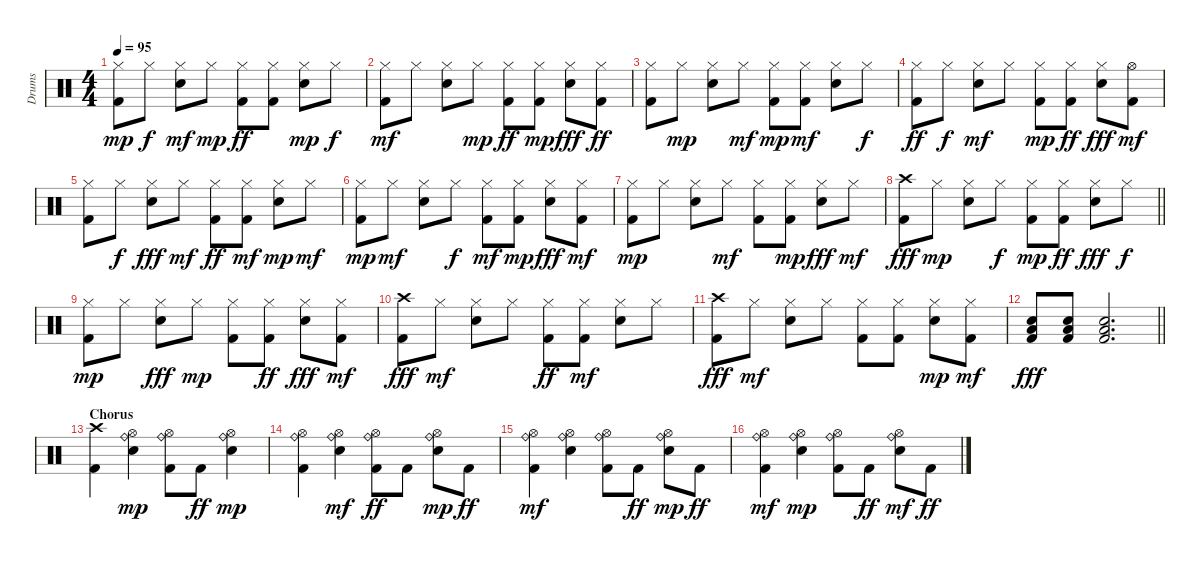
\track ("Drums" "Drums") {instrument percussion}
\staff {score}
\articulation defaults
\ts (4 4)
\tempo 95
\clef neutral
\ks c
("Kick (hit) 2" "Hi-Hat (closed)").8{dy mp} "Hi-Hat (closed)".8{dy f} ("Electric Snare (hit)" "Hi-Hat (closed)").8{dy mf} "Hi-Hat (closed)".8{dy mp} ("Kick (hit) 2" "Hi-Hat (closed)").8{dy ff} ("Kick (hit) 2" "Hi-Hat (closed)").8 ("Electric Snare (hit)" "Hi-Hat (closed)").8{dy mp} "Hi-Hat (closed)".8{dy f} |
("Kick (hit) 2" "Hi-Hat (closed)").8{dy mf} "Hi-Hat (closed)".8 ("Electric Snare (hit)" "Hi-Hat (closed)").8 "Hi-Hat (closed)".8{dy mp} ("Kick (hit) 2" "Hi-Hat (closed)").8{dy ff} ("Kick (hit) 2" "Hi-Hat (closed)").8{dy mp} ("Electric Snare (hit)" "Hi-Hat (closed)").8{dy fff} ("Kick (hit) 2" "Hi-Hat (closed)").8{dy ff} |
("Kick (hit) 2" "Hi-Hat (closed)").8 "Hi-Hat (closed)".8{dy mp} ("Electric Snare (hit)" "Hi-Hat (closed)").8 "Hi-Hat (closed)".8{dy mf} ("Kick (hit) 2" "Hi-Hat (closed)").8{dy mp} ("Kick (hit) 2" "Hi-Hat (closed)").8{dy mf} ("Electric Snare (hit)" "Hi-Hat (closed)").8 "Hi-Hat (closed)".8{dy f} |
("Kick (hit) 2" "Hi-Hat (closed)").8{dy ff} "Hi-Hat (closed)".8{dy f} ("Electric Snare (hit)" "Hi-Hat (closed)").8{dy mf} "Hi-Hat (closed)".8 ("Kick (hit) 2" "Hi-Hat (closed)").8{dy mp} ("Kick (hit) 2" "Hi-Hat (closed)").8{dy ff} ("Electric Snare (hit)" "Hi-Hat (closed)").8{dy fff} ("Kick (hit) 2" "Hi-Hat (open)").8{dy mf} |
("Kick (hit) 2" "Hi-Hat (closed)").8 "Hi-Hat (closed)".8{dy f} ("Electric Snare (hit)" "Hi-Hat (closed)").8{dy fff} "Hi-Hat (closed)".8{dy mf} ("Kick (hit) 2" "Hi-Hat (closed)").8{dy ff} ("Kick (hit) 2" "Hi-Hat (closed)").8{dy mf} ("Electric Snare (hit)" "Hi-Hat (closed)").8{dy mp} "Hi-Hat (closed)".8{dy mf} |
("Kick (hit) 2" "Hi-Hat (closed)").8{dy mp} "Hi-Hat (closed)".8{dy mf} ("Electric Snare (hit)" "Hi-Hat (closed)").8 "Hi-Hat (closed)".8{dy f} ("Kick (hit) 2" "Hi-Hat (closed)").8{dy mf} ("Kick (hit) 2" "Hi-Hat (closed)").8{dy mp} ("Electric Snare (hit)" "Hi-Hat (closed)").8{dy fff} ("Kick (hit) 2" "Hi-Hat (closed)").8{dy mf} |
("Kick (hit) 2" "Hi-Hat (closed)").8{dy mp} "Hi-Hat (closed)".8 ("Electric Snare (hit)" "Hi-Hat (closed)").8 "Hi-Hat (closed)".8{dy mf} ("Kick (hit) 2" "Hi-Hat (closed)").8 ("Kick (hit) 2" "Hi-Hat (closed)").8{dy mp} ("Electric Snare (hit)" "Hi-Hat (closed)").8{dy fff} "Hi-Hat (closed)".8{dy mf} |
\barLineRight lightlight
("Kick (hit) 2" "Crash high (hit)").8{dy fff} "Hi-Hat (closed)".8{dy mp} ("Electric Snare (hit)" "Hi-Hat (closed)").8 "Hi-Hat (closed)".8{dy f} ("Kick (hit) 2" "Hi-Hat (closed)").8{dy mp} ("Kick (hit) 2" "Hi-Hat (closed)").8{dy ff} ("Electric Snare (hit)" "Hi-Hat (closed)").8{dy fff} "Hi-Hat (closed)".8{dy f} |
("Kick (hit) 2" "Hi-Hat (closed)").8{dy mp} "Hi-Hat (closed)".8 ("Electric Snare (hit)" "Hi-Hat (closed)").8{dy fff} "Hi-Hat (closed)".8{dy mp} ("Kick (hit) 2" "Hi-Hat (closed)").8 ("Kick (hit) 2" "Hi-Hat (closed)").8{dy ff} ("Electric Snare (hit)" "Hi-Hat (closed)").8{dy fff} ("Kick (hit) 2" "Hi-Hat (closed)").8{dy mf} |
("Kick (hit) 2" "Crash high (hit)").8{dy fff} "Hi-Hat (closed)".8{dy mf} ("Electric Snare (hit)" "Hi-Hat (closed)").8 "Hi-Hat (closed)".8 ("Kick (hit) 2" "Hi-Hat (closed)").8{dy ff} ("Kick (hit) 2" "Hi-Hat (closed)").8{dy mf} ("Electric Snare (hit)" "Hi-Hat (closed)").8 "Hi-Hat (closed)".8 |
("Kick (hit) 2" "Crash high (hit)").8{dy fff} "Hi-Hat (closed)".8{dy mf} ("Electric Snare (hit)" "Hi-Hat (closed)").8 "Hi-Hat (closed)".8 ("Kick (hit) 2" "Hi-Hat (closed)").8 ("Kick (hit) 2" "Hi-Hat (closed)").8 ("Electric Snare (hit)" "Hi-Hat (closed)").8{dy mp} ("Kick (hit) 2" "Hi-Hat (closed)").8{dy mf} |
\barLineRight lightlight
("Kick (hit) 2" "Electric Snare (hit)" "Low Floor Tom (hit)").8{dy fff} ("Kick (hit) 2" "Electric Snare (hit)" "Low Floor Tom (hit)").8 ("Kick (hit) 2" "Electric Snare (hit)" "Low Floor Tom (hit)").2{d} |
\section ("" "Chorus")
("Kick (hit) 2" "Crash high (hit)").4 ("Electric Snare (hit)" "Hi-Hat (open)" "Ride (bell)").4{dy mp} ("Kick (hit) 2" "Hi-Hat (open)" "Ride (bell)").8 "Kick (hit) 2".8{dy ff} ("Electric Snare (hit)" "Hi-Hat (open)" "Ride (bell)").4{dy mp} |
("Kick (hit) 2" "Hi-Hat (open)" "Ride (bell)").4 ("Electric Snare (hit)" "Hi-Hat (open)" "Ride (bell)").4{dy mf} ("Kick (hit) 2" "Hi-Hat (open)" "Ride (bell)").8{dy ff} "Kick (hit) 2".8 ("Electric Snare (hit)" "Hi-Hat (open)" "Ride (bell)").8{dy mp} "Kick (hit) 2".8{dy ff} |
("Kick (hit) 2" "Hi-Hat (open)" "Ride (bell)").4{dy mf} ("Electric Snare (hit)" "Hi-Hat (open)" "Ride (bell)").4 ("Kick (hit) 2" "Hi-Hat (open)" "Ride (bell)").8 "Kick (hit) 2".8{dy ff} ("Electric Snare (hit)" "Hi-Hat (open)" "Ride (bell)").8{dy mp} "Kick (hit) 2".8{dy ff} |
("Kick (hit) 2" "Hi-Hat (open)" "Ride (bell)").4{dy mf} ("Electric Snare (hit)" "Hi-Hat (open)" "Ride (bell)").4{dy mp} ("Kick (hit) 2" "Hi-Hat (open)" "Ride (bell)").8 "Kick (hit) 2".8{dy ff} ("Electric Snare (hit)" "Hi-Hat (open)" "Ride (bell)").8{dy mf} "Kick (hit) 2".8{dy ff}
